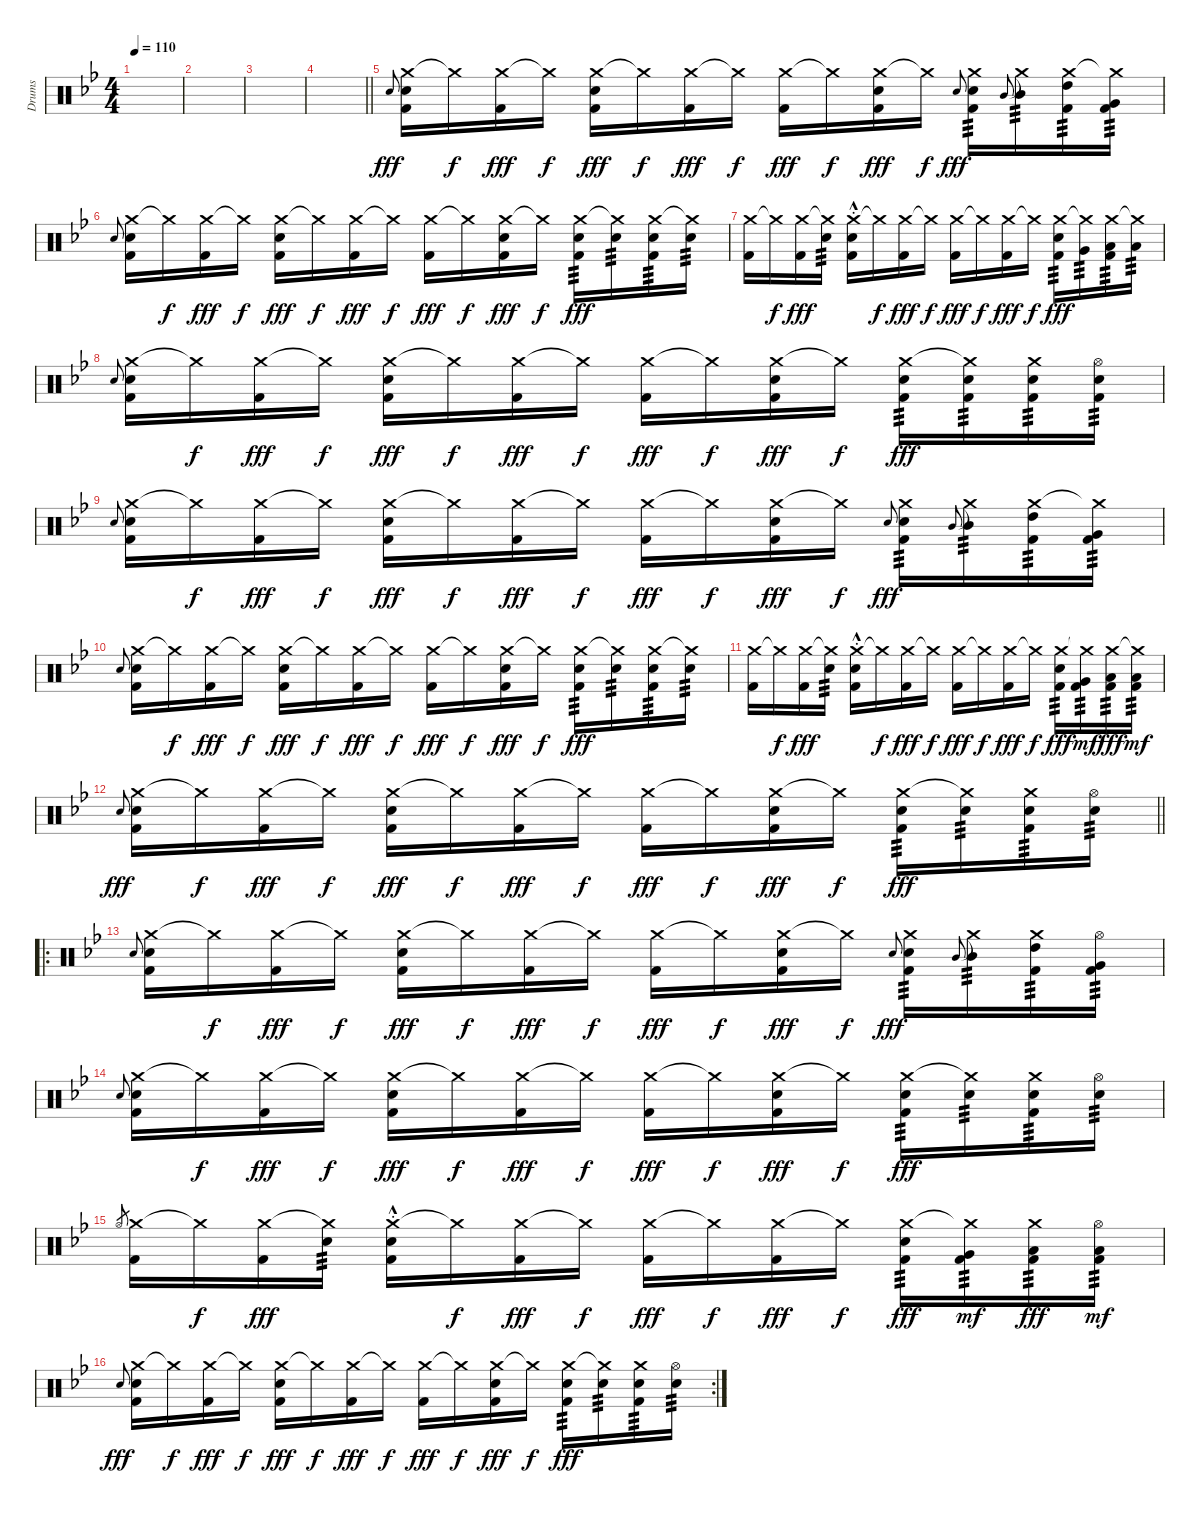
\track ("Drums" "Drums") {instrument percussion}
\staff {score}
\articulation defaults
\ts (4 4)
\tempo 110
\clef neutral
\ks bb
|
|
|
\barLineRight lightlight
|
"Electric Snare (hit)"{h}.8{gr onbeat dy fff} ("Crash medium (hit)" "Electric Snare (hit)" "Kick (hit) 2").16 "Crash medium (hit)"{t}.16{dy f} ("Crash medium (hit)" "Kick (hit) 2").16{dy fff} "Crash medium (hit)"{t}.16{dy f} ("Crash medium (hit)" "Electric Snare (hit)" "Kick (hit) 2").16{dy fff} "Crash medium (hit)"{t}.16{dy f} ("Crash medium (hit)" "Kick (hit) 2").16{dy fff} "Crash medium (hit)"{t}.16{dy f} ("Crash medium (hit)" "Kick (hit) 2").16{dy fff} "Crash medium (hit)"{t}.16{dy f} ("Crash medium (hit)" "Electric Snare (hit)" "Kick (hit) 2").16{dy fff} "Crash medium (hit)"{t}.16{dy f} "Electric Snare (hit)"{h}.8{gr onbeat dy fff} ("Crash medium (hit)" "Electric Snare (hit)" "Kick (hit) 2").16{tp 3} "Mid Tom (hit)"{h}.8{gr onbeat} ("Crash medium (hit)"{t} "Mid Tom (hit)").16{tp 3} ("Crash medium (hit)" "High Tom (hit)" "Kick (hit) 2").16{tp 3} ("Crash medium (hit)"{t} "Very Low Tom (hit)" "Kick (hit) 2").16{tp 3} |
"Electric Snare (hit)"{h}.8{gr onbeat} ("Crash medium (hit)" "Electric Snare (hit)" "Kick (hit) 2").16 "Crash medium (hit)"{t}.16{dy f} ("Crash medium (hit)" "Kick (hit) 2").16{dy fff} "Crash medium (hit)"{t}.16{dy f} ("Crash medium (hit)" "Electric Snare (hit)" "Kick (hit) 2").16{dy fff} "Crash medium (hit)"{t}.16{dy f} ("Crash medium (hit)" "Kick (hit) 2").16{dy fff} "Crash medium (hit)"{t}.16{dy f} ("Crash medium (hit)" "Kick (hit) 2").16{dy fff} "Crash medium (hit)"{t}.16{dy f} ("Crash medium (hit)" "Electric Snare (hit)" "Kick (hit) 2").16{dy fff} "Crash medium (hit)"{t}.16{dy f} ("Crash medium (hit)" "Electric Snare (hit)" "Kick (hit) 2").16{tp 3 dy fff} ("Crash medium (hit)"{t} "Electric Snare (hit)").16{tp 3} ("Crash medium (hit)" "Electric Snare (hit)" "Kick (hit) 2").16{tp 3} ("Crash medium (hit)"{t} "Electric Snare (hit)").16{tp 3} |
("Crash medium (hit)" "Kick (hit) 2").16 "Crash medium (hit)"{t}.16{dy f} ("Crash medium (hit)" "Kick (hit) 2").16{dy fff} ("Crash medium (hit)"{t} "Electric Snare (hit)").16{tp 3} ("Crash medium (hit)" "Electric Snare (hit)"{hac st} "Kick (hit) 2").16 "Crash medium (hit)"{t}.16{dy f} ("Crash medium (hit)" "Kick (hit) 2").16{dy fff} "Crash medium (hit)"{t}.16{dy f} ("Crash medium (hit)" "Kick (hit) 2").16{dy fff} "Crash medium (hit)"{t}.16{dy f} ("Crash medium (hit)" "Kick (hit) 2").16{dy fff} "Crash medium (hit)"{t}.16{dy f} ("Crash medium (hit)" "Electric Snare (hit)" "Kick (hit) 2").16{tp 3 dy fff} ("Crash medium (hit)"{t} "Very Low Tom (hit)").16{tp 3} ("Crash medium (hit)" "Low Tom (hit)" "Kick (hit) 2").16{tp 3} ("Crash medium (hit)"{t} "Low Floor Tom (hit)").16{tp 3} |
"Electric Snare (hit)"{h}.8{gr onbeat} ("Crash medium (hit)" "Electric Snare (hit)" "Kick (hit) 2").16 "Crash medium (hit)"{t}.16{dy f} ("Crash medium (hit)" "Kick (hit) 2").16{dy fff} "Crash medium (hit)"{t}.16{dy f} ("Crash medium (hit)" "Electric Snare (hit)" "Kick (hit) 2").16{dy fff} "Crash medium (hit)"{t}.16{dy f} ("Crash medium (hit)" "Kick (hit) 2").16{dy fff} "Crash medium (hit)"{t}.16{dy f} ("Crash medium (hit)" "Kick (hit) 2").16{dy fff} "Crash medium (hit)"{t}.16{dy f} ("Crash medium (hit)" "Electric Snare (hit)" "Kick (hit) 2").16{dy fff} "Crash medium (hit)"{t}.16{dy f} ("Crash medium (hit)" "Electric Snare (hit)" "Kick (hit) 2").16{tp 3 dy fff} ("Crash medium (hit)"{t} "Electric Snare (hit)" "Kick (hit) 2").16{tp 3} ("Crash medium (hit)" "Electric Snare (hit)" "Kick (hit) 2").16{tp 3} ("Hi-Hat (open)" "Electric Snare (hit)" "Kick (hit) 2").16{tp 3} |
"Electric Snare (hit)"{h}.8{gr onbeat} ("Crash medium (hit)" "Electric Snare (hit)" "Kick (hit) 2").16 "Crash medium (hit)"{t}.16{dy f} ("Crash medium (hit)" "Kick (hit) 2").16{dy fff} "Crash medium (hit)"{t}.16{dy f} ("Crash medium (hit)" "Electric Snare (hit)" "Kick (hit) 2").16{dy fff} "Crash medium (hit)"{t}.16{dy f} ("Crash medium (hit)" "Kick (hit) 2").16{dy fff} "Crash medium (hit)"{t}.16{dy f} ("Crash medium (hit)" "Kick (hit) 2").16{dy fff} "Crash medium (hit)"{t}.16{dy f} ("Crash medium (hit)" "Electric Snare (hit)" "Kick (hit) 2").16{dy fff} "Crash medium (hit)"{t}.16{dy f} "Electric Snare (hit)"{h}.8{gr onbeat dy fff} ("Crash medium (hit)" "Electric Snare (hit)" "Kick (hit) 2").16{tp 3} "Mid Tom (hit)"{h}.8{gr onbeat} ("Crash medium (hit)"{t} "Mid Tom (hit)").16{tp 3} ("Crash medium (hit)" "High Tom (hit)" "Kick (hit) 2").16{tp 3} ("Crash medium (hit)"{t} "Very Low Tom (hit)" "Kick (hit) 2").16{tp 3} |
"Electric Snare (hit)"{h}.8{gr onbeat} ("Crash medium (hit)" "Electric Snare (hit)" "Kick (hit) 2").16 "Crash medium (hit)"{t}.16{dy f} ("Crash medium (hit)" "Kick (hit) 2").16{dy fff} "Crash medium (hit)"{t}.16{dy f} ("Crash medium (hit)" "Electric Snare (hit)" "Kick (hit) 2").16{dy fff} "Crash medium (hit)"{t}.16{dy f} ("Crash medium (hit)" "Kick (hit) 2").16{dy fff} "Crash medium (hit)"{t}.16{dy f} ("Crash medium (hit)" "Kick (hit) 2").16{dy fff} "Crash medium (hit)"{t}.16{dy f} ("Crash medium (hit)" "Electric Snare (hit)" "Kick (hit) 2").16{dy fff} "Crash medium (hit)"{t}.16{dy f} ("Crash medium (hit)" "Electric Snare (hit)" "Kick (hit) 2").16{tp 3 dy fff} ("Crash medium (hit)"{t} "Electric Snare (hit)").16{tp 3} ("Crash medium (hit)" "Electric Snare (hit)" "Kick (hit) 2").16{tp 3} ("Crash medium (hit)"{t} "Electric Snare (hit)").16{tp 3} |
("Crash medium (hit)" "Kick (hit) 2").16 "Crash medium (hit)"{t}.16{dy f} ("Crash medium (hit)" "Kick (hit) 2").16{dy fff} ("Crash medium (hit)"{t} "Electric Snare (hit)").16{tp 3} ("Crash medium (hit)" "Electric Snare (hit)"{hac st} "Kick (hit) 2").16 "Crash medium (hit)"{t}.16{dy f} ("Crash medium (hit)" "Kick (hit) 2").16{dy fff} "Crash medium (hit)"{t}.16{dy f} ("Crash medium (hit)" "Kick (hit) 2").16{dy fff} "Crash medium (hit)"{t}.16{dy f} ("Crash medium (hit)" "Kick (hit) 2").16{dy fff} "Crash medium (hit)"{t}.16{dy f} ("Crash medium (hit)" "Electric Snare (hit)" "Kick (hit) 2").16{tp 3 dy fff} ("Crash medium (hit)"{t} "Very Low Tom (hit)" "Kick (hit) 2").16{tp 3 dy mf} ("Crash medium (hit)" "Low Tom (hit)" "Kick (hit) 2").16{tp 3 dy fff} ("Crash medium (hit)"{t} "Low Floor Tom (hit)" "Kick (hit) 2").16{tp 3 dy mf} |
\barLineRight lightlight "Electric Snare (hit)"{h}.8{gr onbeat dy fff}
("Crash medium (hit)" "Electric Snare (hit)" "Kick (hit) 2").16 "Crash medium (hit)"{t}.16{dy f} ("Crash medium (hit)" "Kick (hit) 2").16{dy fff} "Crash medium (hit)"{t}.16{dy f} ("Crash medium (hit)" "Electric Snare (hit)" "Kick (hit) 2").16{dy fff} "Crash medium (hit)"{t}.16{dy f} ("Crash medium (hit)" "Kick (hit) 2").16{dy fff} "Crash medium (hit)"{t}.16{dy f} ("Crash medium (hit)" "Kick (hit) 2").16{dy fff} "Crash medium (hit)"{t}.16{dy f} ("Crash medium (hit)" "Electric Snare (hit)" "Kick (hit) 2").16{dy fff} "Crash medium (hit)"{t}.16{dy f} ("Crash medium (hit)" "Electric Snare (hit)" "Kick (hit) 2").16{tp 3 dy fff} ("Crash medium (hit)"{t} "Electric Snare (hit)").16{tp 3} ("Crash medium (hit)" "Electric Snare (hit)" "Kick (hit) 2").16{tp 3} ("Hi-Hat (open)" "Electric Snare (hit)").16{tp 3} |
\ro "Electric Snare (hit)"{h}.8{gr onbeat}
("Crash medium (hit)" "Electric Snare (hit)" "Kick (hit) 2").16 "Crash medium (hit)"{t}.16{dy f} ("Crash medium (hit)" "Kick (hit) 2").16{dy fff} "Crash medium (hit)"{t}.16{dy f} ("Crash medium (hit)" "Electric Snare (hit)" "Kick (hit) 2").16{dy fff} "Crash medium (hit)"{t}.16{dy f} ("Crash medium (hit)" "Kick (hit) 2").16{dy fff} "Crash medium (hit)"{t}.16{dy f} ("Crash medium (hit)" "Kick (hit) 2").16{dy fff} "Crash medium (hit)"{t}.16{dy f} ("Crash medium (hit)" "Electric Snare (hit)" "Kick (hit) 2").16{dy fff} "Crash medium (hit)"{t}.16{dy f} "Electric Snare (hit)"{h}.8{gr onbeat dy fff} ("Crash medium (hit)" "Electric Snare (hit)" "Kick (hit) 2").16{tp 3} "Mid Tom (hit)"{h}.8{gr onbeat} ("Crash medium (hit)"{t} "Mid Tom (hit)").16{tp 3} ("Crash medium (hit)" "High Tom (hit)" "Kick (hit) 2").16{tp 3} ("Hi-Hat (open)" "Very Low Tom (hit)" "Kick (hit) 2").16{tp 3} |
"Electric Snare (hit)"{h}.8{gr onbeat} ("Crash medium (hit)" "Electric Snare (hit)" "Kick (hit) 2").16 "Crash medium (hit)"{t}.16{dy f} ("Crash medium (hit)" "Kick (hit) 2").16{dy fff} "Crash medium (hit)"{t}.16{dy f} ("Crash medium (hit)" "Electric Snare (hit)" "Kick (hit) 2").16{dy fff} "Crash medium (hit)"{t}.16{dy f} ("Crash medium (hit)" "Kick (hit) 2").16{dy fff} "Crash medium (hit)"{t}.16{dy f} ("Crash medium (hit)" "Kick (hit) 2").16{dy fff} "Crash medium (hit)"{t}.16{dy f} ("Crash medium (hit)" "Electric Snare (hit)" "Kick (hit) 2").16{dy fff} "Crash medium (hit)"{t}.16{dy f} ("Crash medium (hit)" "Electric Snare (hit)" "Kick (hit) 2").16{tp 3 dy fff} ("Crash medium (hit)"{t} "Electric Snare (hit)").16{tp 3} ("Crash medium (hit)" "Electric Snare (hit)" "Kick (hit) 2").16{tp 3} ("Hi-Hat (open)" "Electric Snare (hit)").16{tp 3} |
"Hi-Hat (open)"{h}.8{gr} ("Crash medium (hit)" "Kick (hit) 2").16 "Crash medium (hit)"{t}.16{dy f} ("Crash medium (hit)" "Kick (hit) 2").16{dy fff} ("Crash medium (hit)"{t} "Electric Snare (hit)").16{tp 3} ("Crash medium (hit)" "Electric Snare (hit)"{hac st} "Kick (hit) 2").16 "Crash medium (hit)"{t}.16{dy f} ("Crash medium (hit)" "Kick (hit) 2").16{dy fff} "Crash medium (hit)"{t}.16{dy f} ("Crash medium (hit)" "Kick (hit) 2").16{dy fff} "Crash medium (hit)"{t}.16{dy f} ("Crash medium (hit)" "Kick (hit) 2").16{dy fff} "Crash medium (hit)"{t}.16{dy f} ("Crash medium (hit)" "Electric Snare (hit)" "Kick (hit) 2").16{tp 3 dy fff} ("Crash medium (hit)"{t} "Very Low Tom (hit)" "Kick (hit) 2").16{tp 3 dy mf} ("Crash medium (hit)" "Low Tom (hit)" "Kick (hit) 2").16{tp 3 dy fff} ("Hi-Hat (open)" "Low Floor Tom (hit)" "Kick (hit) 2").16{tp 3 dy mf} |
\rc 2 "Electric Snare (hit)"{h}.8{gr onbeat dy fff}
("Crash medium (hit)" "Electric Snare (hit)" "Kick (hit) 2").16 "Crash medium (hit)"{t}.16{dy f} ("Crash medium (hit)" "Kick (hit) 2").16{dy fff} "Crash medium (hit)"{t}.16{dy f} ("Crash medium (hit)" "Electric Snare (hit)" "Kick (hit) 2").16{dy fff} "Crash medium (hit)"{t}.16{dy f} ("Crash medium (hit)" "Kick (hit) 2").16{dy fff} "Crash medium (hit)"{t}.16{dy f} ("Crash medium (hit)" "Kick (hit) 2").16{dy fff} "Crash medium (hit)"{t}.16{dy f} ("Crash medium (hit)" "Electric Snare (hit)" "Kick (hit) 2").16{dy fff} "Crash medium (hit)"{t}.16{dy f} ("Crash medium (hit)" "Electric Snare (hit)" "Kick (hit) 2").16{tp 3 dy fff} ("Crash medium (hit)"{t} "Electric Snare (hit)").16{tp 3} ("Crash medium (hit)" "Electric Snare (hit)" "Kick (hit) 2").16{tp 3} ("Hi-Hat (open)" "Electric Snare (hit)").16{tp 3}
